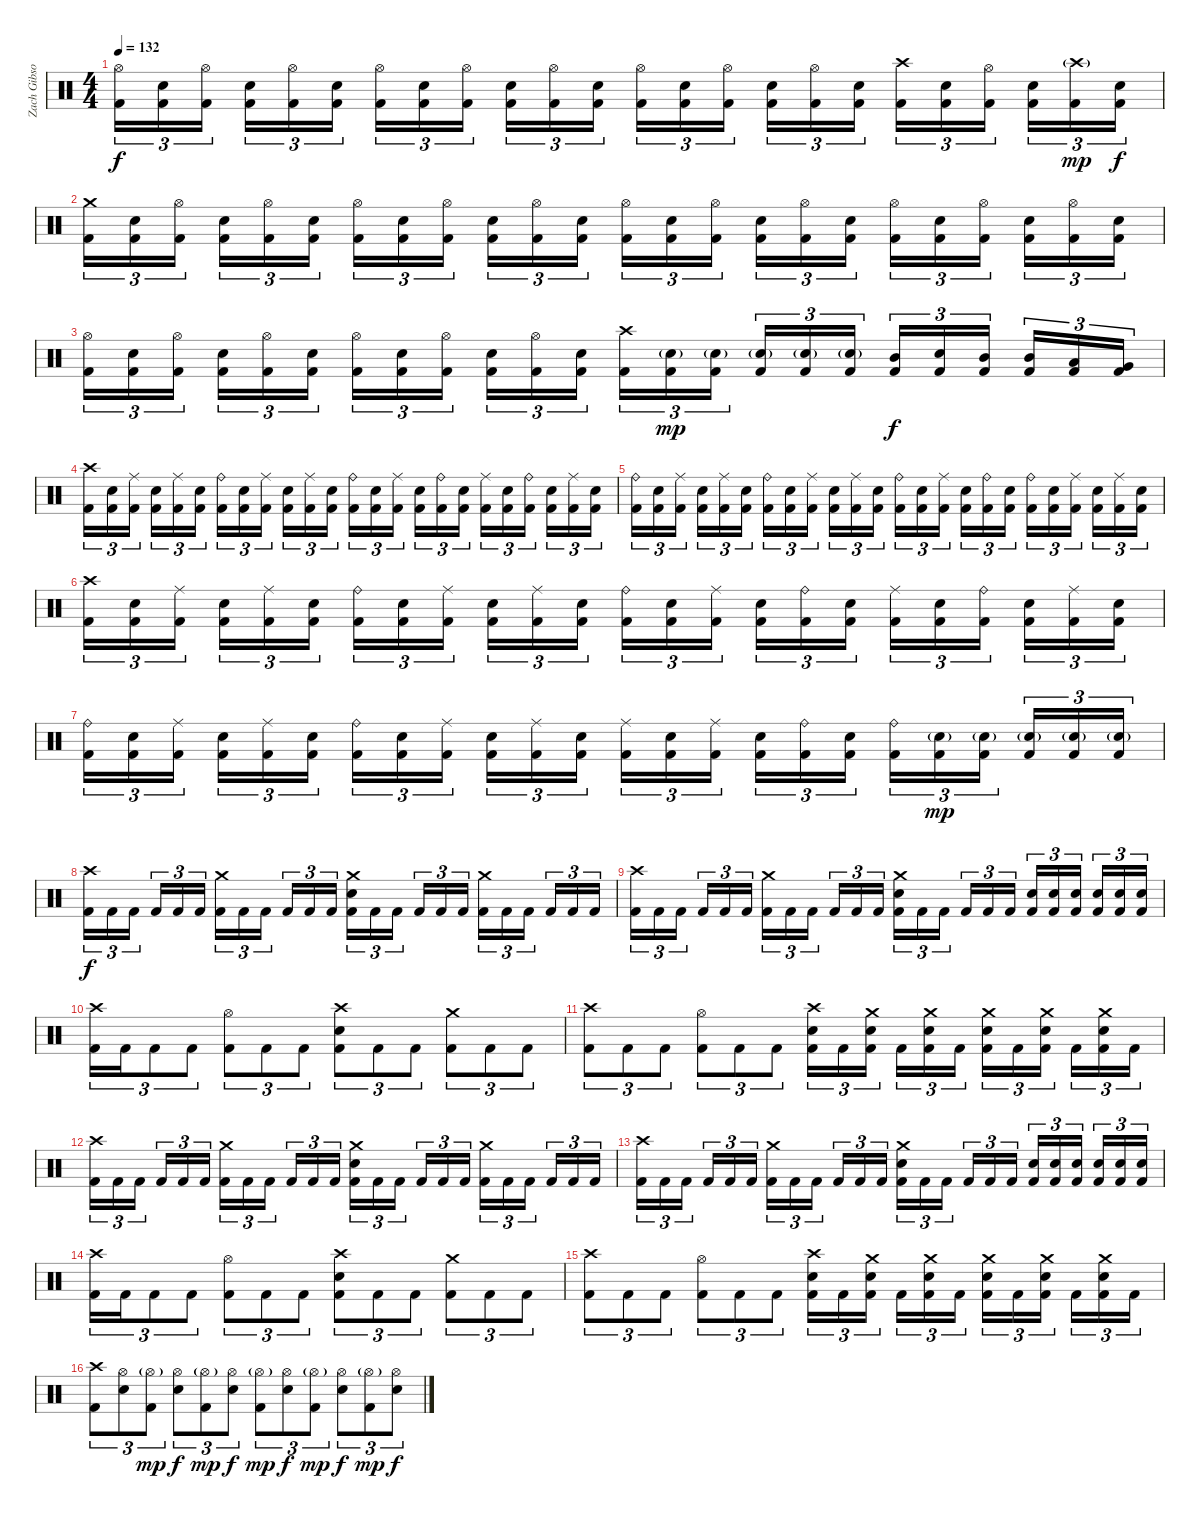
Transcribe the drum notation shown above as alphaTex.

\track ("Zach Gibson (Drums)" "Zach Gibso") {instrument percussion}
\staff {score}
\articulation defaults
\ts (4 4)
\tempo 132
\clef neutral
\ks c
("Hi-Hat (open)" "Kick (hit) 2").16{tu (3 2) dy f} ("Kick (hit) 2" "Snare (hit) 2").16{tu (3 2)} ("Hi-Hat (open)" "Kick (hit) 2").16{tu (3 2)} ("Kick (hit) 2" "Snare (hit) 2").16{tu (3 2)} ("Hi-Hat (open)" "Kick (hit) 2").16{tu (3 2)} ("Kick (hit) 2" "Snare (hit) 2").16{tu (3 2)} ("Hi-Hat (open)" "Kick (hit) 2").16{tu (3 2)} ("Kick (hit) 2" "Snare (hit) 2").16{tu (3 2)} ("Hi-Hat (open)" "Kick (hit) 2").16{tu (3 2)} ("Kick (hit) 2" "Snare (hit) 2").16{tu (3 2)} ("Hi-Hat (open)" "Kick (hit) 2").16{tu (3 2)} ("Kick (hit) 2" "Snare (hit) 2").16{tu (3 2)} ("Hi-Hat (open)" "Kick (hit) 2").16{tu (3 2)} ("Kick (hit) 2" "Snare (hit) 2").16{tu (3 2)} ("Hi-Hat (open)" "Kick (hit) 2").16{tu (3 2)} ("Kick (hit) 2" "Snare (hit) 2").16{tu (3 2)} ("Hi-Hat (open)" "Kick (hit) 2").16{tu (3 2)} ("Kick (hit) 2" "Snare (hit) 2").16{tu (3 2)} ("Crash high (hit)" "Kick (hit) 2").16{tu (3 2)} ("Kick (hit) 2" "Snare (hit) 2").16{tu (3 2)} ("Hi-Hat (open)" "Kick (hit) 2").16{tu (3 2)} ("Kick (hit) 2" "Snare (hit) 2").16{tu (3 2)} ("Crash high (hit)"{g} "Kick (hit) 2").16{tu (3 2) dy mp} ("Kick (hit) 2" "Snare (hit) 2").16{tu (3 2) dy f} |
("Crash medium (hit)" "Kick (hit) 2").16{tu (3 2)} ("Kick (hit) 2" "Snare (hit) 2").16{tu (3 2)} ("Hi-Hat (open)" "Kick (hit) 2").16{tu (3 2)} ("Kick (hit) 2" "Snare (hit) 2").16{tu (3 2)} ("Hi-Hat (open)" "Kick (hit) 2").16{tu (3 2)} ("Kick (hit) 2" "Snare (hit) 2").16{tu (3 2)} ("Hi-Hat (open)" "Kick (hit) 2").16{tu (3 2)} ("Kick (hit) 2" "Snare (hit) 2").16{tu (3 2)} ("Hi-Hat (open)" "Kick (hit) 2").16{tu (3 2)} ("Kick (hit) 2" "Snare (hit) 2").16{tu (3 2)} ("Hi-Hat (open)" "Kick (hit) 2").16{tu (3 2)} ("Kick (hit) 2" "Snare (hit) 2").16{tu (3 2)} ("Hi-Hat (open)" "Kick (hit) 2").16{tu (3 2)} ("Kick (hit) 2" "Snare (hit) 2").16{tu (3 2)} ("Hi-Hat (open)" "Kick (hit) 2").16{tu (3 2)} ("Kick (hit) 2" "Snare (hit) 2").16{tu (3 2)} ("Hi-Hat (open)" "Kick (hit) 2").16{tu (3 2)} ("Kick (hit) 2" "Snare (hit) 2").16{tu (3 2)} ("Hi-Hat (open)" "Kick (hit) 2").16{tu (3 2)} ("Kick (hit) 2" "Snare (hit) 2").16{tu (3 2)} ("Hi-Hat (open)" "Kick (hit) 2").16{tu (3 2)} ("Kick (hit) 2" "Snare (hit) 2").16{tu (3 2)} ("Hi-Hat (open)" "Kick (hit) 2").16{tu (3 2)} ("Kick (hit) 2" "Snare (hit) 2").16{tu (3 2)} |
("Hi-Hat (open)" "Kick (hit) 2").16{tu (3 2)} ("Kick (hit) 2" "Snare (hit) 2").16{tu (3 2)} ("Hi-Hat (open)" "Kick (hit) 2").16{tu (3 2)} ("Kick (hit) 2" "Snare (hit) 2").16{tu (3 2)} ("Hi-Hat (open)" "Kick (hit) 2").16{tu (3 2)} ("Kick (hit) 2" "Snare (hit) 2").16{tu (3 2)} ("Hi-Hat (open)" "Kick (hit) 2").16{tu (3 2)} ("Kick (hit) 2" "Snare (hit) 2").16{tu (3 2)} ("Hi-Hat (open)" "Kick (hit) 2").16{tu (3 2)} ("Kick (hit) 2" "Snare (hit) 2").16{tu (3 2)} ("Hi-Hat (open)" "Kick (hit) 2").16{tu (3 2)} ("Kick (hit) 2" "Snare (hit) 2").16{tu (3 2)} ("Crash high (hit)" "Kick (hit) 2").16{tu (3 2)} ("Snare (hit) 2"{g} "Kick (hit) 2").16{tu (3 2) dy mp} ("Snare (hit) 2"{g} "Kick (hit) 2").16{tu (3 2)} ("Snare (hit) 2"{g} "Kick (hit) 2").16{tu (3 2)} ("Snare (hit) 2"{g} "Kick (hit) 2").16{tu (3 2)} ("Snare (hit) 2"{g} "Kick (hit) 2").16{tu (3 2)} ("Mid Tom (hit)" "Kick (hit) 2").16{tu (3 2) dy f} ("Snare (hit) 2" "Kick (hit) 2").16{tu (3 2)} ("Mid Tom (hit)" "Kick (hit) 2").16{tu (3 2)} ("Mid Tom (hit)" "Kick (hit) 2").16{tu (3 2)} ("Low Tom (hit)" "Kick (hit) 2").16{tu (3 2)} ("Very Low Tom (hit)" "Kick (hit) 2").16{tu (3 2)} |
("Crash high (hit)" "Kick (hit) 2").16{tu (3 2)} ("Kick (hit) 2" "Snare (hit) 2").16{tu (3 2)} ("Ride (middle)" "Kick (hit) 2").16{tu (3 2)} ("Kick (hit) 2" "Snare (hit) 2").16{tu (3 2)} ("Ride (middle)" "Kick (hit) 2").16{tu (3 2)} ("Kick (hit) 2" "Snare (hit) 2").16{tu (3 2)} ("Ride (bell)" "Kick (hit) 2").16{tu (3 2)} ("Kick (hit) 2" "Snare (hit) 2").16{tu (3 2)} ("Ride (middle)" "Kick (hit) 2").16{tu (3 2)} ("Kick (hit) 2" "Snare (hit) 2").16{tu (3 2)} ("Ride (middle)" "Kick (hit) 2").16{tu (3 2)} ("Kick (hit) 2" "Snare (hit) 2").16{tu (3 2)} ("Ride (bell)" "Kick (hit) 2").16{tu (3 2)} ("Kick (hit) 2" "Snare (hit) 2").16{tu (3 2)} ("Ride (middle)" "Kick (hit) 2").16{tu (3 2)} ("Kick (hit) 2" "Snare (hit) 2").16{tu (3 2)} ("Ride (bell)" "Kick (hit) 2").16{tu (3 2)} ("Kick (hit) 2" "Snare (hit) 2").16{tu (3 2)} ("Ride (middle)" "Kick (hit) 2").16{tu (3 2)} ("Kick (hit) 2" "Snare (hit) 2").16{tu (3 2)} ("Ride (bell)" "Kick (hit) 2").16{tu (3 2)} ("Kick (hit) 2" "Snare (hit) 2").16{tu (3 2)} ("Ride (middle)" "Kick (hit) 2").16{tu (3 2)} ("Kick (hit) 2" "Snare (hit) 2").16{tu (3 2)} |
("Ride (bell)" "Kick (hit) 2").16{tu (3 2)} ("Kick (hit) 2" "Snare (hit) 2").16{tu (3 2)} ("Ride (middle)" "Kick (hit) 2").16{tu (3 2)} ("Kick (hit) 2" "Snare (hit) 2").16{tu (3 2)} ("Ride (middle)" "Kick (hit) 2").16{tu (3 2)} ("Kick (hit) 2" "Snare (hit) 2").16{tu (3 2)} ("Ride (bell)" "Kick (hit) 2").16{tu (3 2)} ("Kick (hit) 2" "Snare (hit) 2").16{tu (3 2)} ("Ride (middle)" "Kick (hit) 2").16{tu (3 2)} ("Kick (hit) 2" "Snare (hit) 2").16{tu (3 2)} ("Ride (middle)" "Kick (hit) 2").16{tu (3 2)} ("Kick (hit) 2" "Snare (hit) 2").16{tu (3 2)} ("Ride (bell)" "Kick (hit) 2").16{tu (3 2)} ("Kick (hit) 2" "Snare (hit) 2").16{tu (3 2)} ("Ride (middle)" "Kick (hit) 2").16{tu (3 2)} ("Kick (hit) 2" "Snare (hit) 2").16{tu (3 2)} ("Ride (bell)" "Kick (hit) 2").16{tu (3 2)} ("Kick (hit) 2" "Snare (hit) 2").16{tu (3 2)} ("Ride (bell)" "Kick (hit) 2").16{tu (3 2)} ("Kick (hit) 2" "Snare (hit) 2").16{tu (3 2)} ("Ride (middle)" "Kick (hit) 2").16{tu (3 2)} ("Kick (hit) 2" "Snare (hit) 2").16{tu (3 2)} ("Ride (middle)" "Kick (hit) 2").16{tu (3 2)} ("Kick (hit) 2" "Snare (hit) 2").16{tu (3 2)} |
("Crash high (hit)" "Kick (hit) 2").16{tu (3 2)} ("Kick (hit) 2" "Snare (hit) 2").16{tu (3 2)} ("Ride (middle)" "Kick (hit) 2").16{tu (3 2)} ("Kick (hit) 2" "Snare (hit) 2").16{tu (3 2)} ("Ride (middle)" "Kick (hit) 2").16{tu (3 2)} ("Kick (hit) 2" "Snare (hit) 2").16{tu (3 2)} ("Ride (bell)" "Kick (hit) 2").16{tu (3 2)} ("Kick (hit) 2" "Snare (hit) 2").16{tu (3 2)} ("Ride (middle)" "Kick (hit) 2").16{tu (3 2)} ("Kick (hit) 2" "Snare (hit) 2").16{tu (3 2)} ("Ride (middle)" "Kick (hit) 2").16{tu (3 2)} ("Kick (hit) 2" "Snare (hit) 2").16{tu (3 2)} ("Ride (bell)" "Kick (hit) 2").16{tu (3 2)} ("Kick (hit) 2" "Snare (hit) 2").16{tu (3 2)} ("Ride (middle)" "Kick (hit) 2").16{tu (3 2)} ("Kick (hit) 2" "Snare (hit) 2").16{tu (3 2)} ("Ride (bell)" "Kick (hit) 2").16{tu (3 2)} ("Kick (hit) 2" "Snare (hit) 2").16{tu (3 2)} ("Ride (middle)" "Kick (hit) 2").16{tu (3 2)} ("Kick (hit) 2" "Snare (hit) 2").16{tu (3 2)} ("Ride (bell)" "Kick (hit) 2").16{tu (3 2)} ("Kick (hit) 2" "Snare (hit) 2").16{tu (3 2)} ("Ride (middle)" "Kick (hit) 2").16{tu (3 2)} ("Kick (hit) 2" "Snare (hit) 2").16{tu (3 2)} |
("Ride (bell)" "Kick (hit) 2").16{tu (3 2)} ("Kick (hit) 2" "Snare (hit) 2").16{tu (3 2)} ("Ride (middle)" "Kick (hit) 2").16{tu (3 2)} ("Kick (hit) 2" "Snare (hit) 2").16{tu (3 2)} ("Ride (middle)" "Kick (hit) 2").16{tu (3 2)} ("Kick (hit) 2" "Snare (hit) 2").16{tu (3 2)} ("Ride (bell)" "Kick (hit) 2").16{tu (3 2)} ("Kick (hit) 2" "Snare (hit) 2").16{tu (3 2)} ("Ride (middle)" "Kick (hit) 2").16{tu (3 2)} ("Kick (hit) 2" "Snare (hit) 2").16{tu (3 2)} ("Ride (middle)" "Kick (hit) 2").16{tu (3 2)} ("Kick (hit) 2" "Snare (hit) 2").16{tu (3 2)} ("Ride (middle)" "Kick (hit) 2").16{tu (3 2)} ("Kick (hit) 2" "Snare (hit) 2").16{tu (3 2)} ("Ride (middle)" "Kick (hit) 2").16{tu (3 2)} ("Kick (hit) 2" "Snare (hit) 2").16{tu (3 2)} ("Ride (bell)" "Kick (hit) 2").16{tu (3 2)} ("Kick (hit) 2" "Snare (hit) 2").16{tu (3 2)} ("Ride (bell)" "Kick (hit) 2").16{tu (3 2)} ("Snare (hit) 2"{g} "Kick (hit) 2").16{tu (3 2) dy mp} ("Snare (hit) 2"{g} "Kick (hit) 2").16{tu (3 2)} ("Snare (hit) 2"{g} "Kick (hit) 2").16{tu (3 2)} ("Snare (hit) 2"{g} "Kick (hit) 2").16{tu (3 2)} ("Snare (hit) 2"{g} "Kick (hit) 2").16{tu (3 2)} |
("Crash high (hit)" "Kick (hit) 2").16{tu (3 2) dy f} "Kick (hit) 2".16{tu (3 2)} "Kick (hit) 2".16{tu (3 2)} "Kick (hit) 2".16{tu (3 2)} "Kick (hit) 2".16{tu (3 2)} "Kick (hit) 2".16{tu (3 2)} ("Crash medium (hit)" "Kick (hit) 2").16{tu (3 2)} "Kick (hit) 2".16{tu (3 2)} "Kick (hit) 2".16{tu (3 2)} "Kick (hit) 2".16{tu (3 2)} "Kick (hit) 2".16{tu (3 2)} "Kick (hit) 2".16{tu (3 2)} ("Kick (hit) 2" "Crash medium (hit)" "Snare (hit) 2").16{tu (3 2)} "Kick (hit) 2".16{tu (3 2)} "Kick (hit) 2".16{tu (3 2)} "Kick (hit) 2".16{tu (3 2)} "Kick (hit) 2".16{tu (3 2)} "Kick (hit) 2".16{tu (3 2)} ("Crash medium (hit)" "Kick (hit) 2").16{tu (3 2)} "Kick (hit) 2".16{tu (3 2)} "Kick (hit) 2".16{tu (3 2)} "Kick (hit) 2".16{tu (3 2)} "Kick (hit) 2".16{tu (3 2)} "Kick (hit) 2".16{tu (3 2)} |
("Crash high (hit)" "Kick (hit) 2").16{tu (3 2)} "Kick (hit) 2".16{tu (3 2)} "Kick (hit) 2".16{tu (3 2)} "Kick (hit) 2".16{tu (3 2)} "Kick (hit) 2".16{tu (3 2)} "Kick (hit) 2".16{tu (3 2)} ("Crash medium (hit)" "Kick (hit) 2").16{tu (3 2)} "Kick (hit) 2".16{tu (3 2)} "Kick (hit) 2".16{tu (3 2)} "Kick (hit) 2".16{tu (3 2)} "Kick (hit) 2".16{tu (3 2)} "Kick (hit) 2".16{tu (3 2)} ("Kick (hit) 2" "Crash medium (hit)" "Snare (hit) 2").16{tu (3 2)} "Kick (hit) 2".16{tu (3 2)} "Kick (hit) 2".16{tu (3 2)} "Kick (hit) 2".16{tu (3 2)} "Kick (hit) 2".16{tu (3 2)} "Kick (hit) 2".16{tu (3 2)} ("Snare (hit) 2" "Kick (hit) 2").16{tu (3 2)} ("Snare (hit) 2" "Kick (hit) 2").16{tu (3 2)} ("Snare (hit) 2" "Kick (hit) 2").16{tu (3 2)} ("Snare (hit) 2" "Kick (hit) 2").16{tu (3 2)} ("Snare (hit) 2" "Kick (hit) 2").16{tu (3 2)} ("Snare (hit) 2" "Kick (hit) 2").16{tu (3 2)} |
("Crash high (hit)" "Kick (hit) 2").16{tu (3 2)} "Kick (hit) 2".16{tu (3 2)} "Kick (hit) 2".8{tu (3 2)} "Kick (hit) 2".8{tu (3 2)} ("Hi-Hat (open)" "Kick (hit) 2").8{tu (3 2)} "Kick (hit) 2".8{tu (3 2)} "Kick (hit) 2".8{tu (3 2)} ("Crash high (hit)" "Snare (hit) 2" "Kick (hit) 2").8{tu (3 2)} "Kick (hit) 2".8{tu (3 2)} "Kick (hit) 2".8{tu (3 2)} ("Crash medium (hit)" "Kick (hit) 2").8{tu (3 2)} "Kick (hit) 2".8{tu (3 2)} "Kick (hit) 2".8{tu (3 2)} |
("Crash high (hit)" "Kick (hit) 2").8{tu (3 2)} "Kick (hit) 2".8{tu (3 2)} "Kick (hit) 2".8{tu (3 2)} ("Hi-Hat (open)" "Kick (hit) 2").8{tu (3 2)} "Kick (hit) 2".8{tu (3 2)} "Kick (hit) 2".8{tu (3 2)} ("Crash high (hit)" "Snare (hit) 2" "Kick (hit) 2").16{tu (3 2)} "Kick (hit) 2".16{tu (3 2)} ("Crash medium (hit)" "Snare (hit) 2" "Kick (hit) 2").16{tu (3 2)} "Kick (hit) 2".16{tu (3 2)} ("Crash medium (hit)" "Snare (hit) 2" "Kick (hit) 2").16{tu (3 2)} "Kick (hit) 2".16{tu (3 2)} ("Crash medium (hit)" "Snare (hit) 2" "Kick (hit) 2").16{tu (3 2)} "Kick (hit) 2".16{tu (3 2)} ("Crash medium (hit)" "Snare (hit) 2" "Kick (hit) 2").16{tu (3 2)} "Kick (hit) 2".16{tu (3 2)} ("Crash medium (hit)" "Snare (hit) 2" "Kick (hit) 2").16{tu (3 2)} "Kick (hit) 2".16{tu (3 2)} |
("Crash high (hit)" "Kick (hit) 2").16{tu (3 2)} "Kick (hit) 2".16{tu (3 2)} "Kick (hit) 2".16{tu (3 2)} "Kick (hit) 2".16{tu (3 2)} "Kick (hit) 2".16{tu (3 2)} "Kick (hit) 2".16{tu (3 2)} ("Crash medium (hit)" "Kick (hit) 2").16{tu (3 2)} "Kick (hit) 2".16{tu (3 2)} "Kick (hit) 2".16{tu (3 2)} "Kick (hit) 2".16{tu (3 2)} "Kick (hit) 2".16{tu (3 2)} "Kick (hit) 2".16{tu (3 2)} ("Kick (hit) 2" "Crash medium (hit)" "Snare (hit) 2").16{tu (3 2)} "Kick (hit) 2".16{tu (3 2)} "Kick (hit) 2".16{tu (3 2)} "Kick (hit) 2".16{tu (3 2)} "Kick (hit) 2".16{tu (3 2)} "Kick (hit) 2".16{tu (3 2)} ("Crash medium (hit)" "Kick (hit) 2").16{tu (3 2)} "Kick (hit) 2".16{tu (3 2)} "Kick (hit) 2".16{tu (3 2)} "Kick (hit) 2".16{tu (3 2)} "Kick (hit) 2".16{tu (3 2)} "Kick (hit) 2".16{tu (3 2)} |
("Crash high (hit)" "Kick (hit) 2").16{tu (3 2)} "Kick (hit) 2".16{tu (3 2)} "Kick (hit) 2".16{tu (3 2)} "Kick (hit) 2".16{tu (3 2)} "Kick (hit) 2".16{tu (3 2)} "Kick (hit) 2".16{tu (3 2)} ("Crash medium (hit)" "Kick (hit) 2").16{tu (3 2)} "Kick (hit) 2".16{tu (3 2)} "Kick (hit) 2".16{tu (3 2)} "Kick (hit) 2".16{tu (3 2)} "Kick (hit) 2".16{tu (3 2)} "Kick (hit) 2".16{tu (3 2)} ("Kick (hit) 2" "Crash medium (hit)" "Snare (hit) 2").16{tu (3 2)} "Kick (hit) 2".16{tu (3 2)} "Kick (hit) 2".16{tu (3 2)} "Kick (hit) 2".16{tu (3 2)} "Kick (hit) 2".16{tu (3 2)} "Kick (hit) 2".16{tu (3 2)} ("Snare (hit) 2" "Kick (hit) 2").16{tu (3 2)} ("Snare (hit) 2" "Kick (hit) 2").16{tu (3 2)} ("Snare (hit) 2" "Kick (hit) 2").16{tu (3 2)} ("Snare (hit) 2" "Kick (hit) 2").16{tu (3 2)} ("Snare (hit) 2" "Kick (hit) 2").16{tu (3 2)} ("Snare (hit) 2" "Kick (hit) 2").16{tu (3 2)} |
("Crash high (hit)" "Kick (hit) 2").16{tu (3 2)} "Kick (hit) 2".16{tu (3 2)} "Kick (hit) 2".8{tu (3 2)} "Kick (hit) 2".8{tu (3 2)} ("Hi-Hat (open)" "Kick (hit) 2").8{tu (3 2)} "Kick (hit) 2".8{tu (3 2)} "Kick (hit) 2".8{tu (3 2)} ("Crash high (hit)" "Snare (hit) 2" "Kick (hit) 2").8{tu (3 2)} "Kick (hit) 2".8{tu (3 2)} "Kick (hit) 2".8{tu (3 2)} ("Crash medium (hit)" "Kick (hit) 2").8{tu (3 2)} "Kick (hit) 2".8{tu (3 2)} "Kick (hit) 2".8{tu (3 2)} |
("Crash high (hit)" "Kick (hit) 2").8{tu (3 2)} "Kick (hit) 2".8{tu (3 2)} "Kick (hit) 2".8{tu (3 2)} ("Hi-Hat (open)" "Kick (hit) 2").8{tu (3 2)} "Kick (hit) 2".8{tu (3 2)} "Kick (hit) 2".8{tu (3 2)} ("Crash high (hit)" "Snare (hit) 2" "Kick (hit) 2").16{tu (3 2)} "Kick (hit) 2".16{tu (3 2)} ("Crash medium (hit)" "Snare (hit) 2" "Kick (hit) 2").16{tu (3 2)} "Kick (hit) 2".16{tu (3 2)} ("Crash medium (hit)" "Snare (hit) 2" "Kick (hit) 2").16{tu (3 2)} "Kick (hit) 2".16{tu (3 2)} ("Crash medium (hit)" "Snare (hit) 2" "Kick (hit) 2").16{tu (3 2)} "Kick (hit) 2".16{tu (3 2)} ("Crash medium (hit)" "Snare (hit) 2" "Kick (hit) 2").16{tu (3 2)} "Kick (hit) 2".16{tu (3 2)} ("Crash medium (hit)" "Snare (hit) 2" "Kick (hit) 2").16{tu (3 2)} "Kick (hit) 2".16{tu (3 2)} |
("Crash high (hit)" "Kick (hit) 2").8{tu (3 2)} ("Hi-Hat (open)" "Snare (hit) 2").8{tu (3 2)} ("Hi-Hat (open)"{g} "Kick (hit) 2").8{tu (3 2) dy mp} ("Hi-Hat (open)" "Snare (hit) 2").8{tu (3 2) dy f} ("Hi-Hat (open)"{g} "Kick (hit) 2").8{tu (3 2) dy mp} ("Hi-Hat (open)" "Snare (hit) 2").8{tu (3 2) dy f} ("Hi-Hat (open)"{g} "Kick (hit) 2").8{tu (3 2) dy mp} ("Hi-Hat (open)" "Snare (hit) 2").8{tu (3 2) dy f} ("Hi-Hat (open)"{g} "Kick (hit) 2").8{tu (3 2) dy mp} ("Hi-Hat (open)" "Snare (hit) 2").8{tu (3 2) dy f} ("Hi-Hat (open)"{g} "Kick (hit) 2").8{tu (3 2) dy mp} ("Hi-Hat (open)" "Snare (hit) 2").8{tu (3 2) dy f}
